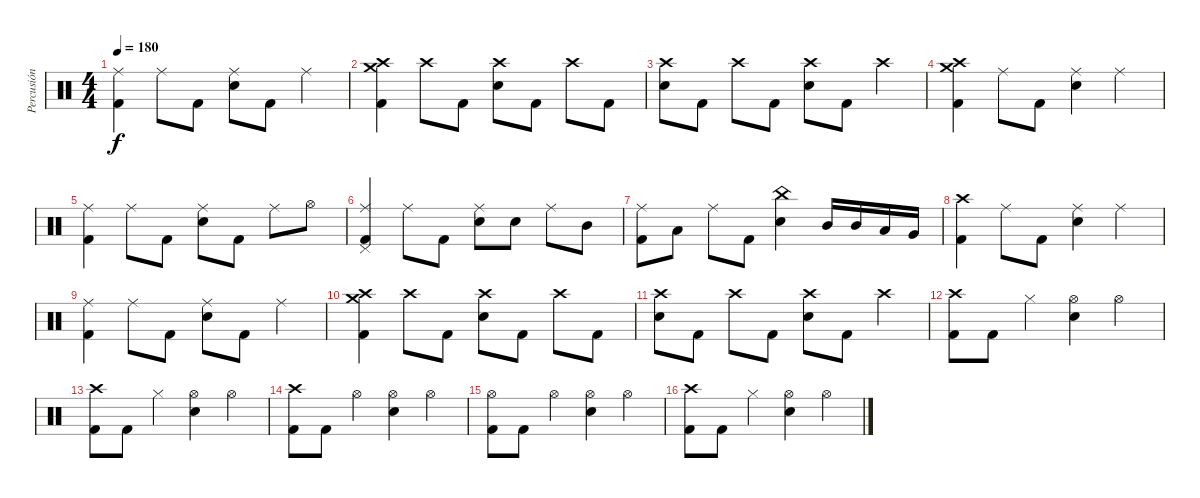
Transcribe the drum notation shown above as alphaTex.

\track ("Percusión" "Percusión") {instrument percussion}
\staff {score}
\articulation defaults
\ts (4 4)
\tempo 180
\clef neutral
\ks c
("Ride (middle)" "Kick (hit) 2").4{dy f} "Ride (middle)".8 "Kick (hit) 2".8 ("Ride (middle)" "Snare (hit) 2").8 "Kick (hit) 2".8 "Ride (middle)".4 |
("Crash medium (hit)" "Crash high (hit)" "Kick (hit) 2").4 "Crash high (hit)".8 "Kick (hit) 2".8 ("Crash high (hit)" "Snare (hit) 2").8 "Kick (hit) 2".8 "Crash high (hit)".8 "Kick (hit) 2".8 |
("Crash high (hit)" "Snare (hit) 2").8 "Kick (hit) 2".8 "Crash high (hit)".8 "Kick (hit) 2".8 ("Crash high (hit)" "Snare (hit) 2").8 "Kick (hit) 2".8 "Crash high (hit)".4 |
("Crash high (hit)" "Crash medium (hit)" "Kick (hit) 2").4 "Ride (middle)".8 "Kick (hit) 2".8 ("Ride (middle)" "Snare (hit) 2").4 "Ride (middle)".4 |
("Ride (middle)" "Kick (hit) 2").4 "Ride (middle)".8 "Kick (hit) 2".8 ("Ride (middle)" "Snare (hit) 2").8 "Kick (hit) 2".8 "Ride (middle)".8 "Hi-Hat (open)".8 |
("Pedal Hi-Hat (hit)" "Ride (middle)" "Kick (hit) 2").4 "Ride (middle)".8 "Kick (hit) 2".8 ("Ride (middle)" "Snare (hit) 2").8 "Snare (hit) 2".8 "Ride (middle)".8 "Mid Tom (hit)".8 |
("Ride (middle)" "Kick (hit) 2").8 "Low Tom (hit)".8 "Ride (middle)".8 "Kick (hit) 2".8 ("China (hit)" "Snare (hit) 2").4 "Mid Tom (hit)".16 "Mid Tom (hit)".16 "Low Tom (hit)".16 "Very Low Tom (hit)".16 |
("Crash high (hit)" "Kick (hit) 2").4 "Ride (middle)".8 "Kick (hit) 2".8 ("Ride (middle)" "Snare (hit) 2").4 "Ride (middle)".4 |
("Ride (middle)" "Kick (hit) 2").4 "Ride (middle)".8 "Kick (hit) 2".8 ("Ride (middle)" "Snare (hit) 2").8 "Kick (hit) 2".8 "Ride (middle)".4 |
("Crash medium (hit)" "Crash high (hit)" "Kick (hit) 2").4 "Crash high (hit)".8 "Kick (hit) 2".8 ("Crash high (hit)" "Snare (hit) 2").8 "Kick (hit) 2".8 "Crash high (hit)".8 "Kick (hit) 2".8 |
("Crash high (hit)" "Snare (hit) 2").8 "Kick (hit) 2".8 "Crash high (hit)".8 "Kick (hit) 2".8 ("Crash high (hit)" "Snare (hit) 2").8 "Kick (hit) 2".8 "Crash high (hit)".4 |
("Crash high (hit)" "Kick (hit) 2").8 "Kick (hit) 2".8 "Hi-Hat (closed)".4 ("Hi-Hat (open)" "Snare (hit) 2").4 "Hi-Hat (open)".4 |
("Crash high (hit)" "Kick (hit) 2").8 "Kick (hit) 2".8 "Hi-Hat (closed)".4 ("Hi-Hat (open)" "Snare (hit) 2").4 "Hi-Hat (open)".4 |
("Crash high (hit)" "Kick (hit) 2").8 "Kick (hit) 2".8 "Hi-Hat (open)".4 ("Hi-Hat (open)" "Snare (hit) 2").4 "Hi-Hat (open)".4 |
("Hi-Hat (open)" "Kick (hit) 2").8 "Kick (hit) 2".8 "Hi-Hat (open)".4 ("Hi-Hat (open)" "Snare (hit) 2").4 "Hi-Hat (open)".4 |
("Crash high (hit)" "Kick (hit) 2").8 "Kick (hit) 2".8 "Hi-Hat (closed)".4 ("Hi-Hat (open)" "Snare (hit) 2").4 "Hi-Hat (open)".4
